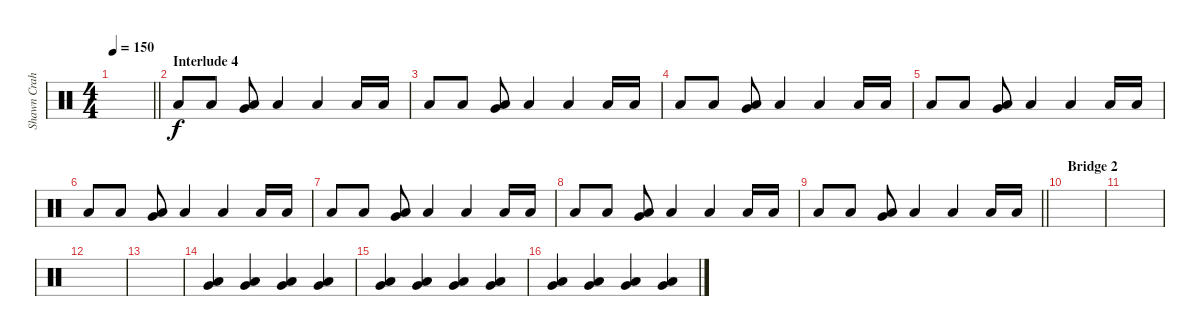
\track ("Shawn Crahan" "Shawn Crah") {instrument percussion}
\staff {score}
\articulation defaults
\ts (4 4)
\tempo 150
\clef neutral
\barLineRight lightlight
\ks c
|
\section ("" "Interlude 4")
"Low Floor Tom (hit)".8 "Low Floor Tom (hit)".8 ("Very Low Tom (hit)" "Low Floor Tom (hit)").8 "Low Floor Tom (hit)".4 "Low Floor Tom (hit)".4 "Low Floor Tom (hit)".16 "Low Floor Tom (hit)".16 |
"Low Floor Tom (hit)".8 "Low Floor Tom (hit)".8 ("Very Low Tom (hit)" "Low Floor Tom (hit)").8 "Low Floor Tom (hit)".4 "Low Floor Tom (hit)".4 "Low Floor Tom (hit)".16 "Low Floor Tom (hit)".16 |
"Low Floor Tom (hit)".8 "Low Floor Tom (hit)".8 ("Very Low Tom (hit)" "Low Floor Tom (hit)").8 "Low Floor Tom (hit)".4 "Low Floor Tom (hit)".4 "Low Floor Tom (hit)".16 "Low Floor Tom (hit)".16 |
"Low Floor Tom (hit)".8 "Low Floor Tom (hit)".8 ("Very Low Tom (hit)" "Low Floor Tom (hit)").8 "Low Floor Tom (hit)".4 "Low Floor Tom (hit)".4 "Low Floor Tom (hit)".16 "Low Floor Tom (hit)".16 |
"Low Floor Tom (hit)".8 "Low Floor Tom (hit)".8 ("Very Low Tom (hit)" "Low Floor Tom (hit)").8 "Low Floor Tom (hit)".4 "Low Floor Tom (hit)".4 "Low Floor Tom (hit)".16 "Low Floor Tom (hit)".16 |
"Low Floor Tom (hit)".8 "Low Floor Tom (hit)".8 ("Very Low Tom (hit)" "Low Floor Tom (hit)").8 "Low Floor Tom (hit)".4 "Low Floor Tom (hit)".4 "Low Floor Tom (hit)".16 "Low Floor Tom (hit)".16 |
"Low Floor Tom (hit)".8 "Low Floor Tom (hit)".8 ("Very Low Tom (hit)" "Low Floor Tom (hit)").8 "Low Floor Tom (hit)".4 "Low Floor Tom (hit)".4 "Low Floor Tom (hit)".16 "Low Floor Tom (hit)".16 |
\barLineRight lightlight "Low Floor Tom (hit)".8 "Low Floor Tom (hit)".8
("Very Low Tom (hit)" "Low Floor Tom (hit)").8 "Low Floor Tom (hit)".4 "Low Floor Tom (hit)".4 "Low Floor Tom (hit)".16 "Low Floor Tom (hit)".16 |
\section ("" "Bridge 2")
|
|
|
|
("Very Low Tom (hit)" "Low Floor Tom (hit)").4 ("Very Low Tom (hit)" "Low Floor Tom (hit)").4 ("Very Low Tom (hit)" "Low Floor Tom (hit)").4 ("Very Low Tom (hit)" "Low Floor Tom (hit)").4 |
("Very Low Tom (hit)" "Low Floor Tom (hit)").4 ("Very Low Tom (hit)" "Low Floor Tom (hit)").4 ("Very Low Tom (hit)" "Low Floor Tom (hit)").4 ("Very Low Tom (hit)" "Low Floor Tom (hit)").4 |
("Very Low Tom (hit)" "Low Floor Tom (hit)").4 ("Very Low Tom (hit)" "Low Floor Tom (hit)").4 ("Very Low Tom (hit)" "Low Floor Tom (hit)").4 ("Very Low Tom (hit)" "Low Floor Tom (hit)").4
